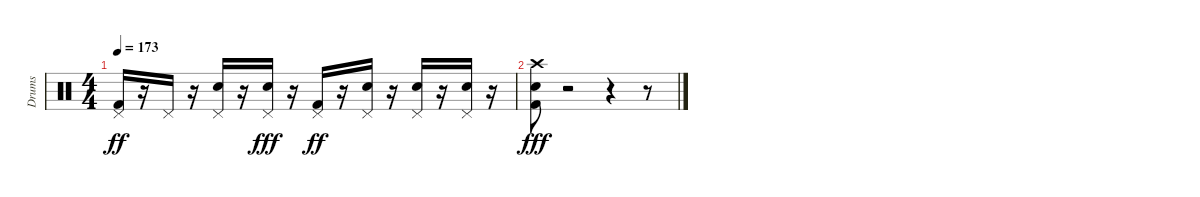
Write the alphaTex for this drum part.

\track ("Drums" "Drums") {instrument percussion}
\staff {score}
\articulation defaults
\ts (4 4)
\tempo 173
\clef neutral
\ks c
("Kick (hit) 2" "Pedal Hi-Hat (hit)").16{dy ff} r.16 "Pedal Hi-Hat (hit)".16 r.16 ("Snare (hit) 2" "Pedal Hi-Hat (hit)").16 r.16 ("Snare (hit) 2" "Pedal Hi-Hat (hit)").16{dy fff} r.16 ("Kick (hit) 2" "Pedal Hi-Hat (hit)").16{dy ff} r.16 ("Snare (hit) 2" "Pedal Hi-Hat (hit)").16 r.16 ("Snare (hit) 2" "Pedal Hi-Hat (hit)").16 r.16 ("Snare (hit) 2" "Pedal Hi-Hat (hit)").16 r.16 |
("Snare (hit) 2" "Kick (hit) 2" "Crash high (hit)").8{dy fff} r.2 r.4 r.8
